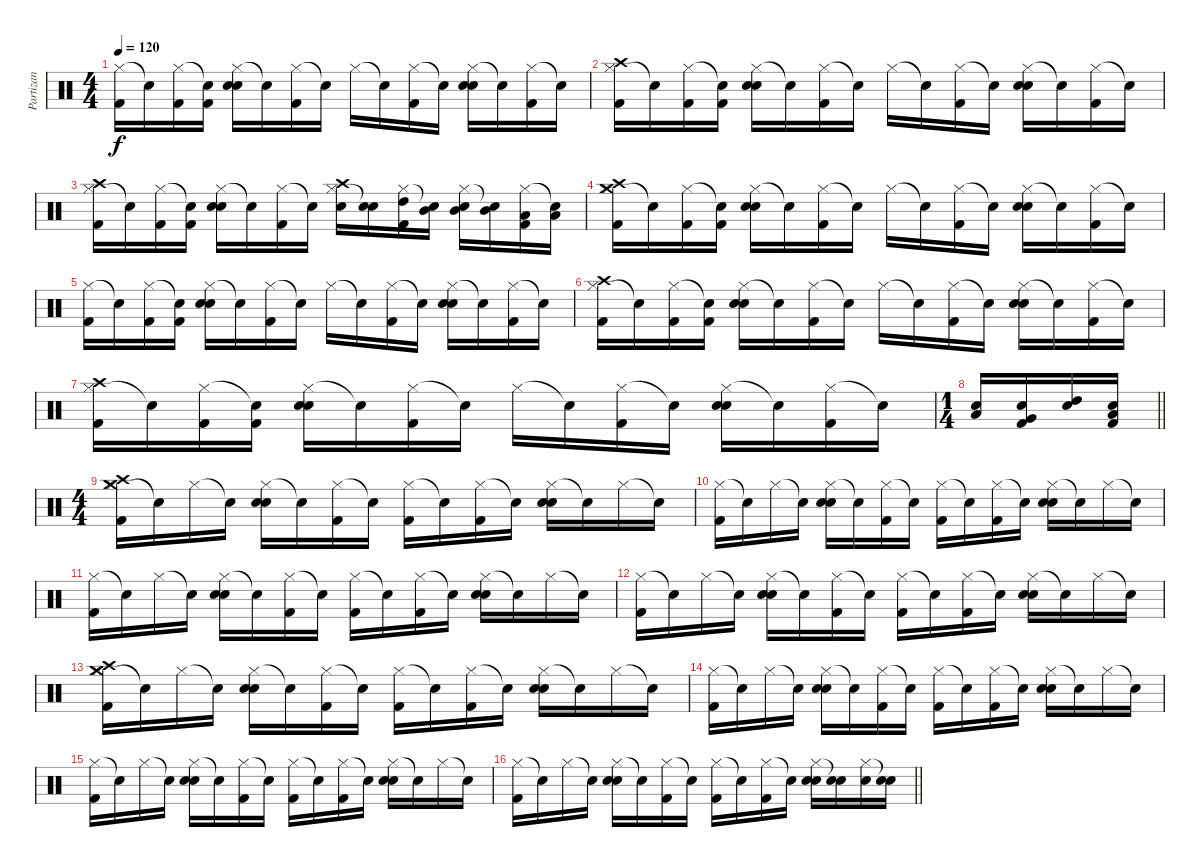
\track ("Partizan" "Partizan") {instrument percussion}
\staff {score}
\articulation defaults
\ts (4 4)
\tempo 120
\clef neutral
\ks c
("Hi-Hat (closed)" "Kick (hit) 2").16{dy f} "Snare (hit)"{t}.16 ("Hi-Hat (closed)" "Kick (hit) 2").16 ("Snare (hit)"{t} "Kick (hit) 2").16 ("Hi-Hat (closed)" "Electric Snare (hit)" "Snare (hit) 2").16 "Snare (hit)"{t}.16 ("Hi-Hat (closed)" "Kick (hit) 2").16 "Snare (hit)"{t}.16 "Hi-Hat (closed)".16 "Snare (hit)"{t}.16 ("Hi-Hat (closed)" "Kick (hit) 2").16 "Snare (hit)"{t}.16 ("Hi-Hat (closed)" "Electric Snare (hit)" "Snare (hit) 2").16 "Snare (hit)"{t}.16 ("Hi-Hat (closed)" "Kick (hit) 2").16 "Snare (hit)"{t}.16 |
("Hi-Hat (closed)" "Crash high (hit)" "Kick (hit) 2").16 "Snare (hit)"{t}.16 ("Hi-Hat (closed)" "Kick (hit) 2").16 ("Snare (hit)"{t} "Kick (hit) 2").16 ("Hi-Hat (closed)" "Electric Snare (hit)" "Snare (hit) 2").16 "Snare (hit)"{t}.16 ("Hi-Hat (closed)" "Kick (hit) 2").16 "Snare (hit)"{t}.16 "Hi-Hat (closed)".16 "Snare (hit)"{t}.16 ("Hi-Hat (closed)" "Kick (hit) 2").16 "Snare (hit)"{t}.16 ("Hi-Hat (closed)" "Electric Snare (hit)" "Snare (hit) 2").16 "Snare (hit)"{t}.16 ("Hi-Hat (closed)" "Kick (hit) 2").16 "Snare (hit)"{t}.16 |
("Hi-Hat (closed)" "Crash high (hit)" "Kick (hit) 2").16 "Snare (hit)"{t}.16 ("Hi-Hat (closed)" "Kick (hit) 2").16 ("Snare (hit)"{t} "Kick (hit) 2").16 ("Hi-Hat (closed)" "Electric Snare (hit)" "Snare (hit) 2").16 "Snare (hit)"{t}.16 ("Hi-Hat (closed)" "Kick (hit) 2").16 "Snare (hit)"{t}.16 ("Hi-Hat (closed)" "Crash high (hit)" "Electric Snare (hit)").16 ("Snare (hit)"{t} "Electric Snare (hit)").16 ("Hi-Hat (closed)" "High Tom (hit)" "Kick (hit) 2").16 ("Snare (hit)"{t} "Mid Tom (hit)").16 ("Hi-Hat (closed)" "Electric Snare (hit)" "Mid Tom (hit)").16 ("Snare (hit)"{t} "Mid Tom (hit)").16 ("Hi-Hat (closed)" "Low Tom (hit)" "Kick (hit) 2").16 ("Snare (hit)"{t} "Low Tom (hit)").16 |
("Hi-Hat (closed)" "Crash medium (hit)" "Crash high (hit)" "Kick (hit) 2").16 "Snare (hit)"{t}.16 ("Hi-Hat (closed)" "Kick (hit) 2").16 ("Snare (hit)"{t} "Kick (hit) 2").16 ("Hi-Hat (closed)" "Electric Snare (hit)" "Snare (hit) 2").16 "Snare (hit)"{t}.16 ("Hi-Hat (closed)" "Kick (hit) 2").16 "Snare (hit)"{t}.16 "Hi-Hat (closed)".16 "Snare (hit)"{t}.16 ("Hi-Hat (closed)" "Kick (hit) 2").16 "Snare (hit)"{t}.16 ("Hi-Hat (closed)" "Electric Snare (hit)" "Snare (hit) 2").16 "Snare (hit)"{t}.16 ("Hi-Hat (closed)" "Kick (hit) 2").16 "Snare (hit)"{t}.16 |
("Hi-Hat (closed)" "Kick (hit) 2").16 "Snare (hit)"{t}.16 ("Hi-Hat (closed)" "Kick (hit) 2").16 ("Snare (hit)"{t} "Kick (hit) 2").16 ("Hi-Hat (closed)" "Electric Snare (hit)" "Snare (hit) 2").16 "Snare (hit)"{t}.16 ("Hi-Hat (closed)" "Kick (hit) 2").16 "Snare (hit)"{t}.16 "Hi-Hat (closed)".16 "Snare (hit)"{t}.16 ("Hi-Hat (closed)" "Kick (hit) 2").16 "Snare (hit)"{t}.16 ("Hi-Hat (closed)" "Electric Snare (hit)" "Snare (hit) 2").16 "Snare (hit)"{t}.16 ("Hi-Hat (closed)" "Kick (hit) 2").16 "Snare (hit)"{t}.16 |
("Hi-Hat (closed)" "Crash high (hit)" "Kick (hit) 2").16 "Snare (hit)"{t}.16 ("Hi-Hat (closed)" "Kick (hit) 2").16 ("Snare (hit)"{t} "Kick (hit) 2").16 ("Hi-Hat (closed)" "Electric Snare (hit)" "Snare (hit) 2").16 "Snare (hit)"{t}.16 ("Hi-Hat (closed)" "Kick (hit) 2").16 "Snare (hit)"{t}.16 "Hi-Hat (closed)".16 "Snare (hit)"{t}.16 ("Hi-Hat (closed)" "Kick (hit) 2").16 "Snare (hit)"{t}.16 ("Hi-Hat (closed)" "Electric Snare (hit)" "Snare (hit) 2").16 "Snare (hit)"{t}.16 ("Hi-Hat (closed)" "Kick (hit) 2").16 "Snare (hit)"{t}.16 |
("Hi-Hat (closed)" "Crash high (hit)" "Kick (hit) 2").16 "Snare (hit)"{t}.16 ("Hi-Hat (closed)" "Kick (hit) 2").16 ("Snare (hit)"{t} "Kick (hit) 2").16 ("Hi-Hat (closed)" "Electric Snare (hit)" "Snare (hit) 2").16 "Snare (hit)"{t}.16 ("Hi-Hat (closed)" "Kick (hit) 2").16 "Snare (hit)"{t}.16 "Hi-Hat (closed)".16 "Snare (hit)"{t}.16 ("Hi-Hat (closed)" "Kick (hit) 2").16 "Snare (hit)"{t}.16 ("Hi-Hat (closed)" "Electric Snare (hit)" "Snare (hit) 2").16 "Snare (hit)"{t}.16 ("Hi-Hat (closed)" "Kick (hit) 2").16 "Snare (hit)"{t}.16 |
\ts (1 4)
\barLineRight lightlight
("Low Tom (hit)" "Electric Snare (hit)").16 ("Very Low Tom (hit)" "Electric Snare (hit)" "Kick (hit) 2").16 ("High Tom (hit)" "Electric Snare (hit)").16 ("Low Floor Tom (hit)" "Electric Snare (hit)" "Kick (hit) 2").16 |
\ts (4 4)
("Hi-Hat (closed)" "Crash high (hit)" "Crash medium (hit)" "Kick (hit) 2").16 "Snare (hit)"{t}.16 "Hi-Hat (closed)".16 "Snare (hit)"{t}.16 ("Hi-Hat (closed)" "Electric Snare (hit)" "Snare (hit) 2").16 "Snare (hit)"{t}.16 ("Hi-Hat (closed)" "Kick (hit) 2").16 "Snare (hit)"{t}.16 ("Hi-Hat (closed)" "Kick (hit) 2").16 "Snare (hit)"{t}.16 ("Hi-Hat (closed)" "Kick (hit) 2").16 "Snare (hit)"{t}.16 ("Hi-Hat (closed)" "Electric Snare (hit)" "Snare (hit) 2").16 "Snare (hit)"{t}.16 "Hi-Hat (closed)".16 "Snare (hit)"{t}.16 |
("Hi-Hat (closed)" "Kick (hit) 2").16 "Snare (hit)"{t}.16 "Hi-Hat (closed)".16 "Snare (hit)"{t}.16 ("Hi-Hat (closed)" "Electric Snare (hit)" "Snare (hit) 2").16 "Snare (hit)"{t}.16 ("Hi-Hat (closed)" "Kick (hit) 2").16 "Snare (hit)"{t}.16 ("Hi-Hat (closed)" "Kick (hit) 2").16 "Snare (hit)"{t}.16 ("Hi-Hat (closed)" "Kick (hit) 2").16 "Snare (hit)"{t}.16 ("Hi-Hat (closed)" "Electric Snare (hit)" "Snare (hit) 2").16 "Snare (hit)"{t}.16 "Hi-Hat (closed)".16 "Snare (hit)"{t}.16 |
("Hi-Hat (closed)" "Kick (hit) 2").16 "Snare (hit)"{t}.16 "Hi-Hat (closed)".16 "Snare (hit)"{t}.16 ("Hi-Hat (closed)" "Electric Snare (hit)" "Snare (hit) 2").16 "Snare (hit)"{t}.16 ("Hi-Hat (closed)" "Kick (hit) 2").16 "Snare (hit)"{t}.16 ("Hi-Hat (closed)" "Kick (hit) 2").16 "Snare (hit)"{t}.16 ("Hi-Hat (closed)" "Kick (hit) 2").16 "Snare (hit)"{t}.16 ("Hi-Hat (closed)" "Electric Snare (hit)" "Snare (hit) 2").16 "Snare (hit)"{t}.16 "Hi-Hat (closed)".16 "Snare (hit)"{t}.16 |
("Hi-Hat (closed)" "Kick (hit) 2").16 "Snare (hit)"{t}.16 "Hi-Hat (closed)".16 "Snare (hit)"{t}.16 ("Hi-Hat (closed)" "Electric Snare (hit)" "Snare (hit) 2").16 "Snare (hit)"{t}.16 ("Hi-Hat (closed)" "Kick (hit) 2").16 "Snare (hit)"{t}.16 ("Hi-Hat (closed)" "Kick (hit) 2").16 "Snare (hit)"{t}.16 ("Hi-Hat (closed)" "Kick (hit) 2").16 "Snare (hit)"{t}.16 ("Hi-Hat (closed)" "Electric Snare (hit)" "Snare (hit) 2").16 "Snare (hit)"{t}.16 "Hi-Hat (closed)".16 "Snare (hit)"{t}.16 |
("Hi-Hat (closed)" "Crash high (hit)" "Crash medium (hit)" "Kick (hit) 2").16 "Snare (hit)"{t}.16 "Hi-Hat (closed)".16 "Snare (hit)"{t}.16 ("Hi-Hat (closed)" "Electric Snare (hit)" "Snare (hit) 2").16 "Snare (hit)"{t}.16 ("Hi-Hat (closed)" "Kick (hit) 2").16 "Snare (hit)"{t}.16 ("Hi-Hat (closed)" "Kick (hit) 2").16 "Snare (hit)"{t}.16 ("Hi-Hat (closed)" "Kick (hit) 2").16 "Snare (hit)"{t}.16 ("Hi-Hat (closed)" "Electric Snare (hit)" "Snare (hit) 2").16 "Snare (hit)"{t}.16 "Hi-Hat (closed)".16 "Snare (hit)"{t}.16 |
("Hi-Hat (closed)" "Kick (hit) 2").16 "Snare (hit)"{t}.16 "Hi-Hat (closed)".16 "Snare (hit)"{t}.16 ("Hi-Hat (closed)" "Electric Snare (hit)" "Snare (hit) 2").16 "Snare (hit)"{t}.16 ("Hi-Hat (closed)" "Kick (hit) 2").16 "Snare (hit)"{t}.16 ("Hi-Hat (closed)" "Kick (hit) 2").16 "Snare (hit)"{t}.16 ("Hi-Hat (closed)" "Kick (hit) 2").16 "Snare (hit)"{t}.16 ("Hi-Hat (closed)" "Electric Snare (hit)" "Snare (hit) 2").16 "Snare (hit)"{t}.16 "Hi-Hat (closed)".16 "Snare (hit)"{t}.16 |
("Hi-Hat (closed)" "Kick (hit) 2").16 "Snare (hit)"{t}.16 "Hi-Hat (closed)".16 "Snare (hit)"{t}.16 ("Hi-Hat (closed)" "Electric Snare (hit)" "Snare (hit) 2").16 "Snare (hit)"{t}.16 ("Hi-Hat (closed)" "Kick (hit) 2").16 "Snare (hit)"{t}.16 ("Hi-Hat (closed)" "Kick (hit) 2").16 "Snare (hit)"{t}.16 ("Hi-Hat (closed)" "Kick (hit) 2").16 "Snare (hit)"{t}.16 ("Hi-Hat (closed)" "Electric Snare (hit)" "Snare (hit) 2").16 "Snare (hit)"{t}.16 "Hi-Hat (closed)".16 "Snare (hit)"{t}.16 |
\barLineRight lightlight
("Hi-Hat (closed)" "Kick (hit) 2").16 "Snare (hit)"{t}.16 "Hi-Hat (closed)".16 "Snare (hit)"{t}.16 ("Hi-Hat (closed)" "Electric Snare (hit)" "Snare (hit) 2").16 "Snare (hit)"{t}.16 ("Hi-Hat (closed)" "Kick (hit) 2").16 "Snare (hit)"{t}.16 ("Hi-Hat (closed)" "Kick (hit) 2").16 "Snare (hit)"{t}.16 ("Hi-Hat (closed)" "Kick (hit) 2").16 "Snare (hit)"{t}.16 ("Hi-Hat (closed)" "Electric Snare (hit)" "Snare (hit) 2").16 ("Snare (hit)"{t} "Electric Snare (hit)").16 ("Hi-Hat (closed)" "Electric Snare (hit)").16 ("Snare (hit)"{t} "Electric Snare (hit)").16
